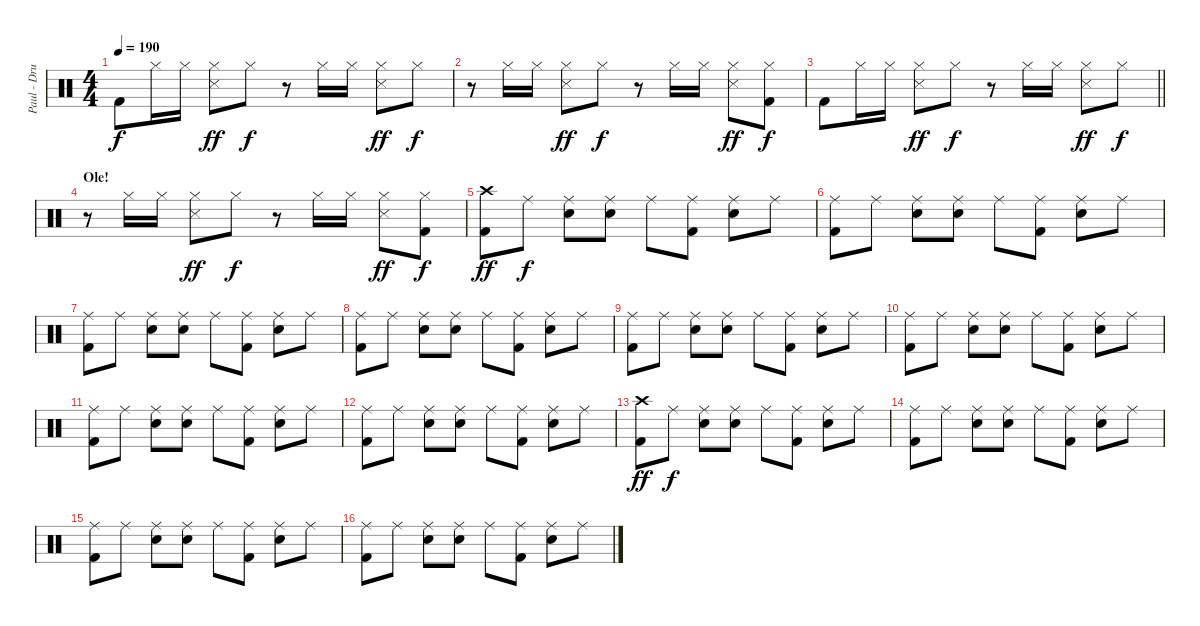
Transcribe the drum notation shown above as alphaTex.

\track ("Paul - Drums" "Paul - Dru") {instrument percussion}
\staff {score}
\articulation defaults
\ts (4 4)
\tempo 190
\clef neutral
\ks c "Kick (hit) 2".8{dy f} "Hi-Hat (closed)".16 "Hi-Hat (closed)".16
("Hi-Hat (closed)" "Snare (side stick) 3").8{dy ff} "Hi-Hat (closed)".8{dy f} r.8 "Hi-Hat (closed)".16 "Hi-Hat (closed)".16 ("Hi-Hat (closed)" "Snare (side stick) 3").8{dy ff} "Hi-Hat (closed)".8{dy f} |
r.8 "Hi-Hat (closed)".16 "Hi-Hat (closed)".16 ("Hi-Hat (closed)" "Snare (side stick) 3").8{dy ff} "Hi-Hat (closed)".8{dy f} r.8 "Hi-Hat (closed)".16 "Hi-Hat (closed)".16 ("Hi-Hat (closed)" "Snare (side stick) 3").8{dy ff} ("Hi-Hat (closed)" "Kick (hit) 2").8{dy f} |
\barLineRight lightlight "Kick (hit) 2".8 "Hi-Hat (closed)".16 "Hi-Hat (closed)".16
("Hi-Hat (closed)" "Snare (side stick) 3").8{dy ff} "Hi-Hat (closed)".8{dy f} r.8 "Hi-Hat (closed)".16 "Hi-Hat (closed)".16 ("Hi-Hat (closed)" "Snare (side stick) 3").8{dy ff} "Hi-Hat (closed)".8{dy f} |
\section ("" "Ole!")
r.8 "Hi-Hat (closed)".16 "Hi-Hat (closed)".16 ("Hi-Hat (closed)" "Snare (side stick) 3").8{dy ff} "Hi-Hat (closed)".8{dy f} r.8 "Hi-Hat (closed)".16 "Hi-Hat (closed)".16 ("Hi-Hat (closed)" "Snare (side stick) 3").8{dy ff} ("Hi-Hat (closed)" "Kick (hit) 2").8{dy f} |
("Crash high (hit)" "Kick (hit) 2").8{dy ff} "Ride (middle)".8{dy f} ("Ride (middle)" "Electric Snare (hit)").8 ("Ride (middle)" "Electric Snare (hit)").8 "Ride (middle)".8 ("Ride (middle)" "Kick (hit) 2").8 ("Ride (middle)" "Electric Snare (hit)").8 "Ride (middle)".8 |
("Ride (middle)" "Kick (hit) 2").8 "Ride (middle)".8 ("Ride (middle)" "Electric Snare (hit)").8 ("Ride (middle)" "Electric Snare (hit)").8 "Ride (middle)".8 ("Ride (middle)" "Kick (hit) 2").8 ("Ride (middle)" "Electric Snare (hit)").8 "Ride (middle)".8 |
("Ride (middle)" "Kick (hit) 2").8 "Ride (middle)".8 ("Ride (middle)" "Electric Snare (hit)").8 ("Ride (middle)" "Electric Snare (hit)").8 "Ride (middle)".8 ("Ride (middle)" "Kick (hit) 2").8 ("Ride (middle)" "Electric Snare (hit)").8 "Ride (middle)".8 |
("Ride (middle)" "Kick (hit) 2").8 "Ride (middle)".8 ("Ride (middle)" "Electric Snare (hit)").8 ("Ride (middle)" "Electric Snare (hit)").8 "Ride (middle)".8 ("Ride (middle)" "Kick (hit) 2").8 ("Ride (middle)" "Electric Snare (hit)").8 "Ride (middle)".8 |
("Ride (middle)" "Kick (hit) 2").8 "Ride (middle)".8 ("Ride (middle)" "Electric Snare (hit)").8 ("Ride (middle)" "Electric Snare (hit)").8 "Ride (middle)".8 ("Ride (middle)" "Kick (hit) 2").8 ("Ride (middle)" "Electric Snare (hit)").8 "Ride (middle)".8 |
("Ride (middle)" "Kick (hit) 2").8 "Ride (middle)".8 ("Ride (middle)" "Electric Snare (hit)").8 ("Ride (middle)" "Electric Snare (hit)").8 "Ride (middle)".8 ("Ride (middle)" "Kick (hit) 2").8 ("Ride (middle)" "Electric Snare (hit)").8 "Ride (middle)".8 |
("Ride (middle)" "Kick (hit) 2").8 "Ride (middle)".8 ("Ride (middle)" "Electric Snare (hit)").8 ("Ride (middle)" "Electric Snare (hit)").8 "Ride (middle)".8 ("Ride (middle)" "Kick (hit) 2").8 ("Ride (middle)" "Electric Snare (hit)").8 "Ride (middle)".8 |
("Ride (middle)" "Kick (hit) 2").8 "Ride (middle)".8 ("Ride (middle)" "Electric Snare (hit)").8 ("Ride (middle)" "Electric Snare (hit)").8 "Ride (middle)".8 ("Ride (middle)" "Kick (hit) 2").8 ("Ride (middle)" "Electric Snare (hit)").8 "Ride (middle)".8 |
("Crash high (hit)" "Kick (hit) 2").8{dy ff} "Ride (middle)".8{dy f} ("Ride (middle)" "Electric Snare (hit)").8 ("Ride (middle)" "Electric Snare (hit)").8 "Ride (middle)".8 ("Ride (middle)" "Kick (hit) 2").8 ("Ride (middle)" "Electric Snare (hit)").8 "Ride (middle)".8 |
("Ride (middle)" "Kick (hit) 2").8 "Ride (middle)".8 ("Ride (middle)" "Electric Snare (hit)").8 ("Ride (middle)" "Electric Snare (hit)").8 "Ride (middle)".8 ("Ride (middle)" "Kick (hit) 2").8 ("Ride (middle)" "Electric Snare (hit)").8 "Ride (middle)".8 |
("Ride (middle)" "Kick (hit) 2").8 "Ride (middle)".8 ("Ride (middle)" "Electric Snare (hit)").8 ("Ride (middle)" "Electric Snare (hit)").8 "Ride (middle)".8 ("Ride (middle)" "Kick (hit) 2").8 ("Ride (middle)" "Electric Snare (hit)").8 "Ride (middle)".8 |
("Ride (middle)" "Kick (hit) 2").8 "Ride (middle)".8 ("Ride (middle)" "Electric Snare (hit)").8 ("Ride (middle)" "Electric Snare (hit)").8 "Ride (middle)".8 ("Ride (middle)" "Kick (hit) 2").8 ("Ride (middle)" "Electric Snare (hit)").8 "Ride (middle)".8
